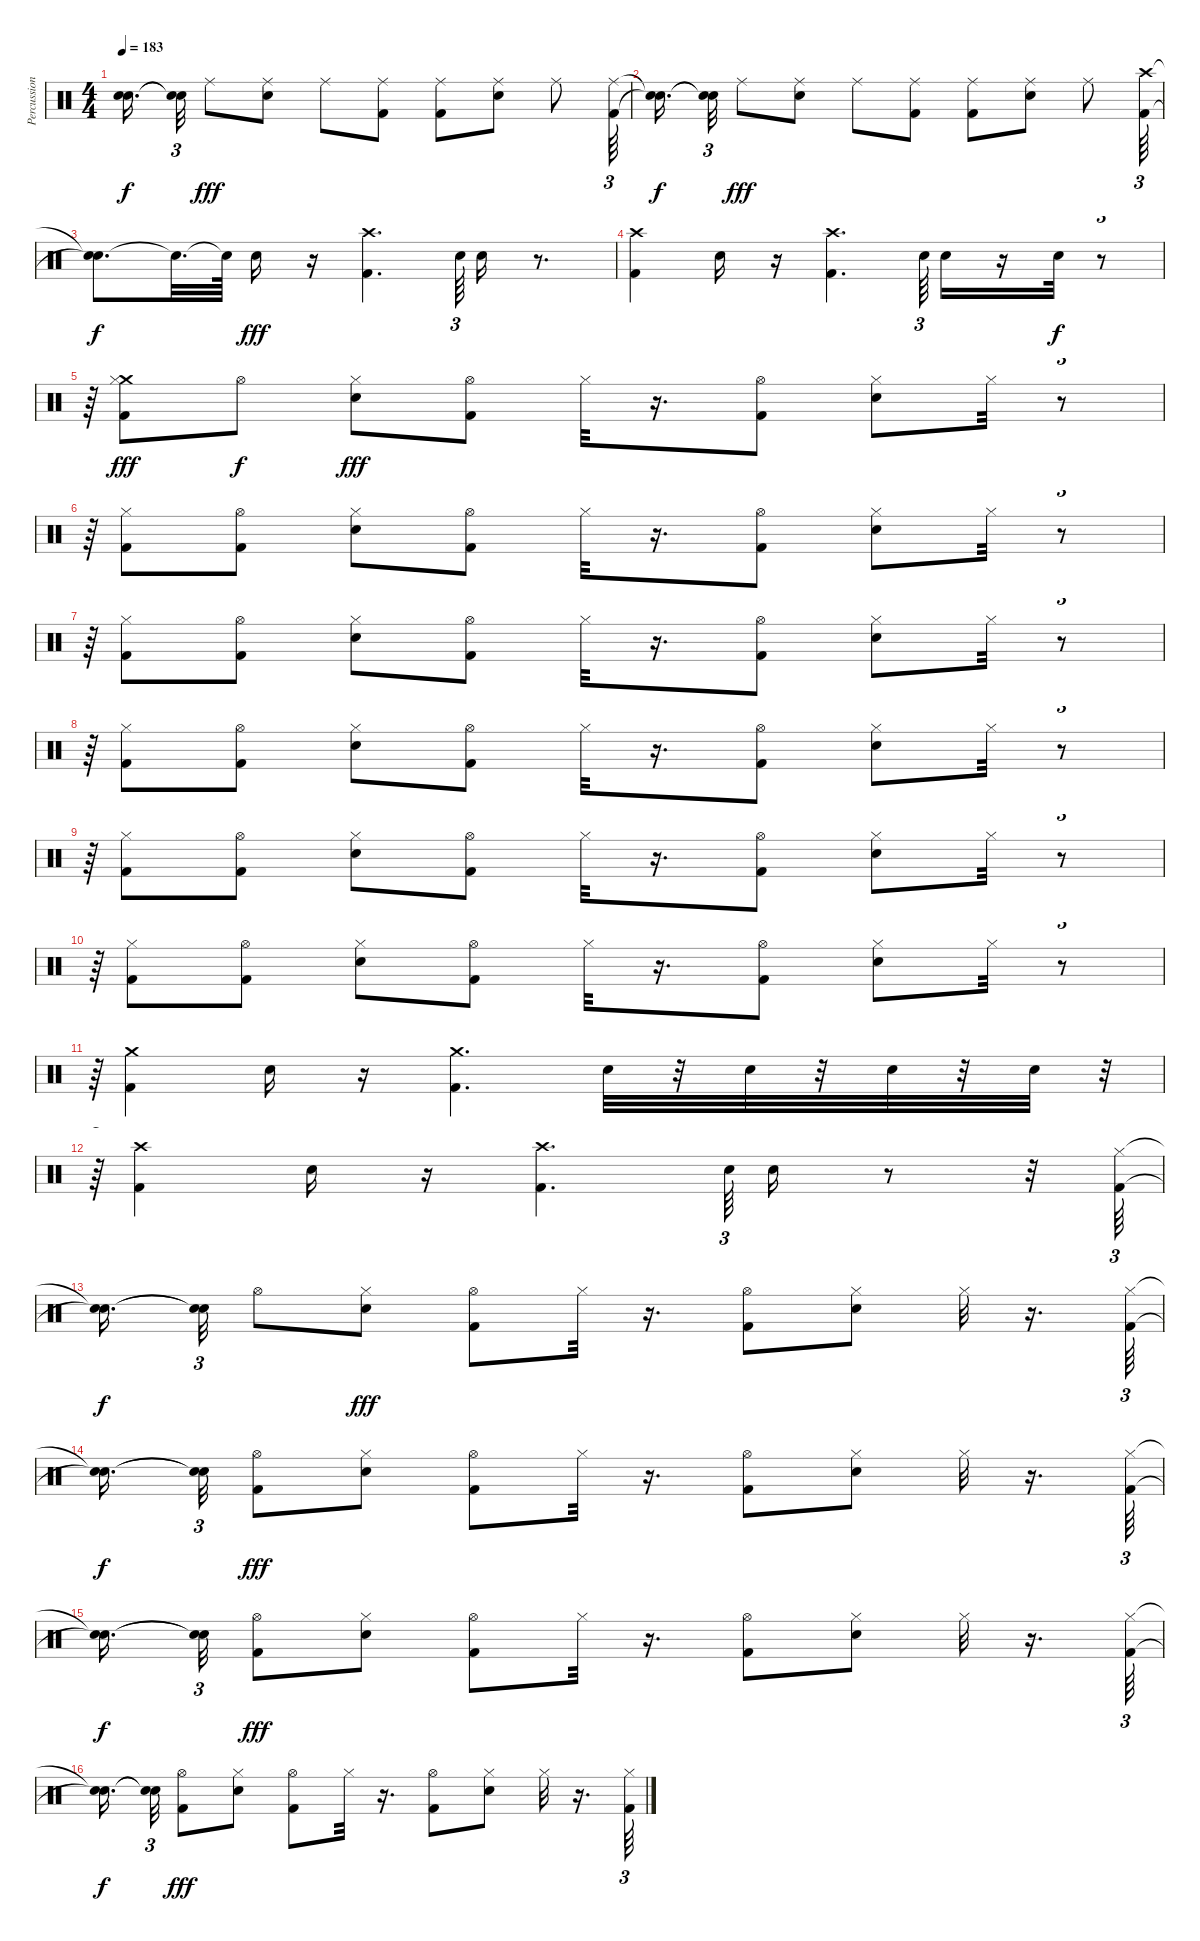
\track ("Percussioni" "Percussion") {instrument percussion}
\staff {score}
\articulation defaults
\ts (4 4)
\tempo 183
\clef neutral
\ks c
("Snare (hit)"{t} "Snare (hit)"{t}).16{d dy f beam splitsecondary} ("Snare (hit)"{t} "Snare (hit)"{t}).32{tu (3 2)} "Ride (middle)".8{dy fff} ("Ride (middle)" "Snare (hit) 2").8 "Ride (middle)".8 ("Ride (middle)" "Kick (hit) 2").8 ("Ride (middle)" "Kick (hit) 2").8 ("Ride (middle)" "Snare (hit) 2").8 "Ride (middle)".8 ("Ride (middle)" "Kick (hit) 2").64{tu (3 2)} |
("Snare (hit)"{t} "Snare (hit)"{t}).16{d dy f beam splitsecondary} ("Snare (hit)"{t} "Snare (hit)"{t}).32{tu (3 2)} "Ride (middle)".8{dy fff} ("Ride (middle)" "Snare (hit) 2").8 "Ride (middle)".8 ("Ride (middle)" "Kick (hit) 2").8 ("Ride (middle)" "Kick (hit) 2").8 ("Ride (middle)" "Snare (hit) 2").8 "Ride (middle)".8 ("Crash high (hit)" "Kick (hit) 2").64{tu (3 2)} |
("Snare (hit)"{t} "Snare (hit)"{t}).8{d dy f} "Snare (hit)"{t}.32{d} "Snare (hit)"{t}.64 "Snare (hit) 2".16{dy fff} r.16 ("Crash high (hit)" "Kick (hit) 2").4{d} "Snare (hit) 2".64{tu (3 2)} "Snare (hit) 2".16 r.8{d} |
("Crash high (hit)" "Kick (hit) 2").4 "Snare (hit) 2".16 r.16 ("Crash high (hit)" "Kick (hit) 2").4{d} "Snare (hit) 2".64{tu (3 2)} "Snare (hit) 2".16 r.16 "Snare (hit) 2".32{dy f} r.8{tu (3 2)} |
r.64{tu (3 2)} ("Crash medium (hit)" "Hi-Hat (closed)" "Kick (hit) 2").8{dy fff} "Hi-Hat (open)".8{dy f} ("Hi-Hat (closed)" "Snare (hit) 2").8{dy fff} ("Hi-Hat (open)" "Kick (hit) 2").8 "Hi-Hat (closed)".32 r.16{d} ("Hi-Hat (open)" "Kick (hit) 2").8 ("Hi-Hat (closed)" "Snare (hit) 2").8 "Hi-Hat (closed)".32 r.8{tu (3 2)} |
r.64{tu (3 2)} ("Hi-Hat (closed)" "Kick (hit) 2").8 ("Hi-Hat (open)" "Kick (hit) 2").8 ("Hi-Hat (closed)" "Snare (hit) 2").8 ("Hi-Hat (open)" "Kick (hit) 2").8 "Hi-Hat (closed)".32 r.16{d} ("Hi-Hat (open)" "Kick (hit) 2").8 ("Hi-Hat (closed)" "Snare (hit) 2").8 "Hi-Hat (closed)".32 r.8{tu (3 2)} |
r.64{tu (3 2)} ("Hi-Hat (closed)" "Kick (hit) 2").8 ("Hi-Hat (open)" "Kick (hit) 2").8 ("Hi-Hat (closed)" "Snare (hit) 2").8 ("Hi-Hat (open)" "Kick (hit) 2").8 "Hi-Hat (closed)".32 r.16{d} ("Hi-Hat (open)" "Kick (hit) 2").8 ("Hi-Hat (closed)" "Snare (hit) 2").8 "Hi-Hat (closed)".32 r.8{tu (3 2)} |
r.64{tu (3 2)} ("Hi-Hat (closed)" "Kick (hit) 2").8 ("Hi-Hat (open)" "Kick (hit) 2").8 ("Hi-Hat (closed)" "Snare (hit) 2").8 ("Hi-Hat (open)" "Kick (hit) 2").8 "Hi-Hat (closed)".32 r.16{d} ("Hi-Hat (open)" "Kick (hit) 2").8 ("Hi-Hat (closed)" "Snare (hit) 2").8 "Hi-Hat (closed)".32 r.8{tu (3 2)} |
r.64{tu (3 2)} ("Hi-Hat (closed)" "Kick (hit) 2").8 ("Hi-Hat (open)" "Kick (hit) 2").8 ("Hi-Hat (closed)" "Snare (hit) 2").8 ("Hi-Hat (open)" "Kick (hit) 2").8 "Hi-Hat (closed)".32 r.16{d} ("Hi-Hat (open)" "Kick (hit) 2").8 ("Hi-Hat (closed)" "Snare (hit) 2").8 "Hi-Hat (closed)".32 r.8{tu (3 2)} |
r.64{tu (3 2)} ("Hi-Hat (closed)" "Kick (hit) 2").8 ("Hi-Hat (open)" "Kick (hit) 2").8 ("Hi-Hat (closed)" "Snare (hit) 2").8 ("Hi-Hat (open)" "Kick (hit) 2").8 "Hi-Hat (closed)".32 r.16{d} ("Hi-Hat (open)" "Kick (hit) 2").8 ("Hi-Hat (closed)" "Snare (hit) 2").8 "Hi-Hat (closed)".32 r.8{tu (3 2)} |
r.64{tu (3 2)} ("Crash medium (hit)" "Kick (hit) 2").4 "Snare (hit) 2".16 r.16 ("Crash medium (hit)" "Kick (hit) 2").4{d} "Snare (hit) 2".32 r.32 "Snare (hit) 2".32 r.32 "Snare (hit) 2".32 r.32 "Snare (hit) 2".32 r.32{tu (3 2)} |
r.64{tu (3 2)} ("Crash high (hit)" "Kick (hit) 2").4 "Snare (hit) 2".16 r.16 ("Crash high (hit)" "Kick (hit) 2").4{d} "Snare (hit) 2".64{tu (3 2)} "Snare (hit) 2".16 r.8 r.32 ("Hi-Hat (closed)" "Kick (hit) 2").64{tu (3 2)} |
("Snare (hit)"{t} "Snare (hit)"{t}).16{d dy f beam splitsecondary} ("Snare (hit)"{t} "Snare (hit)"{t}).32{tu (3 2)} "Hi-Hat (open)".8 ("Hi-Hat (closed)" "Snare (hit) 2").8{dy fff} ("Hi-Hat (open)" "Kick (hit) 2").8 "Hi-Hat (closed)".32 r.16{d} ("Hi-Hat (open)" "Kick (hit) 2").8 ("Hi-Hat (closed)" "Snare (hit) 2").8 "Hi-Hat (closed)".32 r.16{d} ("Hi-Hat (closed)" "Kick (hit) 2").64{tu (3 2)} |
("Snare (hit)"{t} "Snare (hit)"{t}).16{d dy f beam splitsecondary} ("Snare (hit)"{t} "Snare (hit)"{t}).32{tu (3 2)} ("Hi-Hat (open)" "Kick (hit) 2").8{dy fff} ("Hi-Hat (closed)" "Snare (hit) 2").8 ("Hi-Hat (open)" "Kick (hit) 2").8 "Hi-Hat (closed)".32 r.16{d} ("Hi-Hat (open)" "Kick (hit) 2").8 ("Hi-Hat (closed)" "Snare (hit) 2").8 "Hi-Hat (closed)".32 r.16{d} ("Hi-Hat (closed)" "Kick (hit) 2").64{tu (3 2)} |
("Snare (hit)"{t} "Snare (hit)"{t}).16{d dy f beam splitsecondary} ("Snare (hit)"{t} "Snare (hit)"{t}).32{tu (3 2)} ("Hi-Hat (open)" "Kick (hit) 2").8{dy fff} ("Hi-Hat (closed)" "Snare (hit) 2").8 ("Hi-Hat (open)" "Kick (hit) 2").8 "Hi-Hat (closed)".32 r.16{d} ("Hi-Hat (open)" "Kick (hit) 2").8 ("Hi-Hat (closed)" "Snare (hit) 2").8 "Hi-Hat (closed)".32 r.16{d} ("Hi-Hat (closed)" "Kick (hit) 2").64{tu (3 2)} |
("Snare (hit)"{t} "Snare (hit)"{t}).16{d dy f beam splitsecondary} ("Snare (hit)"{t} "Snare (hit)"{t}).32{tu (3 2)} ("Hi-Hat (open)" "Kick (hit) 2").8{dy fff} ("Hi-Hat (closed)" "Snare (hit) 2").8 ("Hi-Hat (open)" "Kick (hit) 2").8 "Hi-Hat (closed)".32 r.16{d} ("Hi-Hat (open)" "Kick (hit) 2").8 ("Hi-Hat (closed)" "Snare (hit) 2").8 "Hi-Hat (closed)".32 r.16{d} ("Hi-Hat (closed)" "Kick (hit) 2").64{tu (3 2)}
